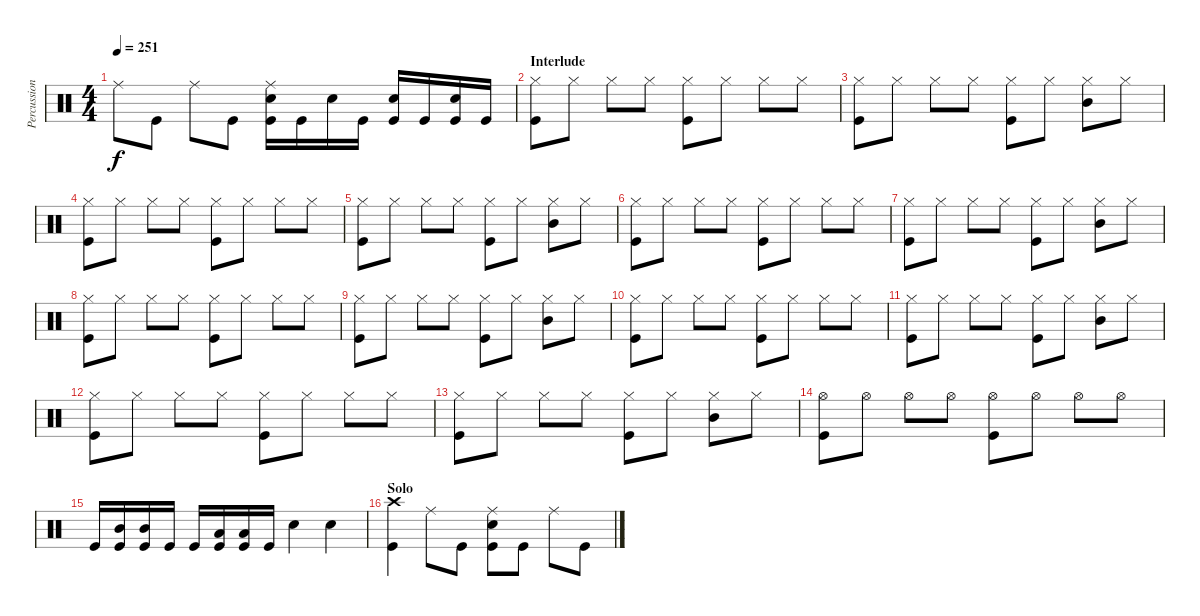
\track ("Percussion" "Percussion") {instrument percussion}
\staff {score}
\articulation defaults
\ts (4 4)
\tempo 251
\clef neutral
\ks c "Ride (middle)".8{dy f} "Kick (hit)".8 "Ride (middle)".8 "Kick (hit)".8
("Ride (middle)" "Electric Snare (hit)" "Kick (hit)").16 "Kick (hit)".16 "Electric Snare (hit)".16 "Kick (hit)".16 ("Electric Snare (hit)" "Kick (hit)").16 "Kick (hit)".16 ("Electric Snare (hit)" "Kick (hit)").16 "Kick (hit)".16 |
\section ("" "Interlude")
("Hi-Hat (closed)" "Kick (hit)").8 "Hi-Hat (closed)".8 "Hi-Hat (closed)".8 "Hi-Hat (closed)".8 ("Hi-Hat (closed)" "Kick (hit)").8 "Hi-Hat (closed)".8 "Hi-Hat (closed)".8 "Hi-Hat (closed)".8 |
("Hi-Hat (closed)" "Kick (hit)").8 "Hi-Hat (closed)".8 "Hi-Hat (closed)".8 "Hi-Hat (closed)".8 ("Hi-Hat (closed)" "Kick (hit)").8 "Hi-Hat (closed)".8 ("Mid Tom (hit)" "Hi-Hat (closed)").8 "Hi-Hat (closed)".8 |
("Hi-Hat (closed)" "Kick (hit)").8 "Hi-Hat (closed)".8 "Hi-Hat (closed)".8 "Hi-Hat (closed)".8 ("Hi-Hat (closed)" "Kick (hit)").8 "Hi-Hat (closed)".8 "Hi-Hat (closed)".8 "Hi-Hat (closed)".8 |
("Hi-Hat (closed)" "Kick (hit)").8 "Hi-Hat (closed)".8 "Hi-Hat (closed)".8 "Hi-Hat (closed)".8 ("Hi-Hat (closed)" "Kick (hit)").8 "Hi-Hat (closed)".8 ("Mid Tom (hit)" "Hi-Hat (closed)").8 "Hi-Hat (closed)".8 |
("Hi-Hat (closed)" "Kick (hit)").8 "Hi-Hat (closed)".8 "Hi-Hat (closed)".8 "Hi-Hat (closed)".8 ("Hi-Hat (closed)" "Kick (hit)").8 "Hi-Hat (closed)".8 "Hi-Hat (closed)".8 "Hi-Hat (closed)".8 |
("Hi-Hat (closed)" "Kick (hit)").8 "Hi-Hat (closed)".8 "Hi-Hat (closed)".8 "Hi-Hat (closed)".8 ("Hi-Hat (closed)" "Kick (hit)").8 "Hi-Hat (closed)".8 ("Mid Tom (hit)" "Hi-Hat (closed)").8 "Hi-Hat (closed)".8 |
("Hi-Hat (closed)" "Kick (hit)").8 "Hi-Hat (closed)".8 "Hi-Hat (closed)".8 "Hi-Hat (closed)".8 ("Hi-Hat (closed)" "Kick (hit)").8 "Hi-Hat (closed)".8 "Hi-Hat (closed)".8 "Hi-Hat (closed)".8 |
("Hi-Hat (closed)" "Kick (hit)").8 "Hi-Hat (closed)".8 "Hi-Hat (closed)".8 "Hi-Hat (closed)".8 ("Hi-Hat (closed)" "Kick (hit)").8 "Hi-Hat (closed)".8 ("Mid Tom (hit)" "Hi-Hat (closed)").8 "Hi-Hat (closed)".8 |
("Hi-Hat (closed)" "Kick (hit)").8 "Hi-Hat (closed)".8 "Hi-Hat (closed)".8 "Hi-Hat (closed)".8 ("Hi-Hat (closed)" "Kick (hit)").8 "Hi-Hat (closed)".8 "Hi-Hat (closed)".8 "Hi-Hat (closed)".8 |
("Hi-Hat (closed)" "Kick (hit)").8 "Hi-Hat (closed)".8 "Hi-Hat (closed)".8 "Hi-Hat (closed)".8 ("Hi-Hat (closed)" "Kick (hit)").8 "Hi-Hat (closed)".8 ("Mid Tom (hit)" "Hi-Hat (closed)").8 "Hi-Hat (closed)".8 |
("Hi-Hat (closed)" "Kick (hit)").8 "Hi-Hat (closed)".8 "Hi-Hat (closed)".8 "Hi-Hat (closed)".8 ("Hi-Hat (closed)" "Kick (hit)").8 "Hi-Hat (closed)".8 "Hi-Hat (closed)".8 "Hi-Hat (closed)".8 |
("Hi-Hat (closed)" "Kick (hit)").8 "Hi-Hat (closed)".8 "Hi-Hat (closed)".8 "Hi-Hat (closed)".8 ("Hi-Hat (closed)" "Kick (hit)").8 "Hi-Hat (closed)".8 ("Mid Tom (hit)" "Hi-Hat (closed)").8 "Hi-Hat (closed)".8 |
("Hi-Hat (open)" "Kick (hit)").8 "Hi-Hat (open)".8 "Hi-Hat (open)".8 "Hi-Hat (open)".8 ("Hi-Hat (open)" "Kick (hit)").8 "Hi-Hat (open)".8 "Hi-Hat (open)".8 "Hi-Hat (open)".8 |
"Kick (hit)".16 ("Mid Tom (hit)" "Kick (hit)").16 ("Mid Tom (hit)" "Kick (hit)").16 "Kick (hit)".16 "Kick (hit)".16 ("Low Tom (hit)" "Kick (hit)").16 ("Low Tom (hit)" "Kick (hit)").16 "Kick (hit)".16 "Electric Snare (hit)".4 "Electric Snare (hit)".4 |
\section ("" "Solo")
("Crash high (hit)" "Kick (hit)").4 "Ride (middle)".8 "Kick (hit)".8 ("Ride (middle)" "Electric Snare (hit)" "Kick (hit)").8 "Kick (hit)".8 "Ride (middle)".8 "Kick (hit)".8
